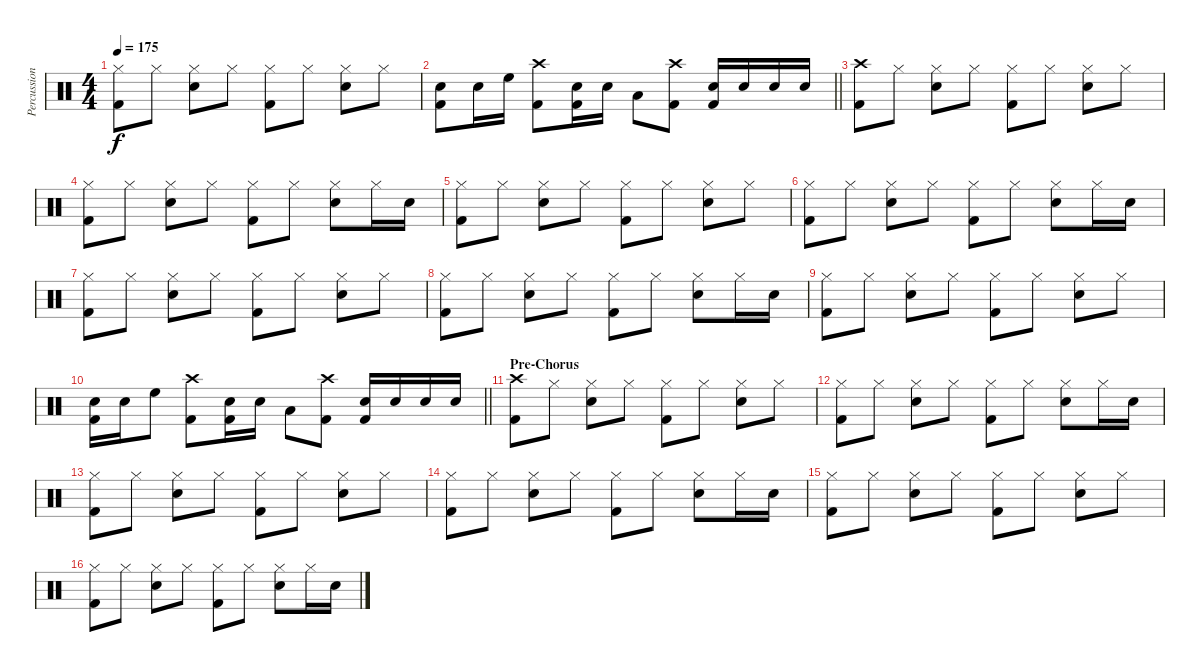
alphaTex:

\track ("Percussion" "Percussion") {instrument percussion}
\staff {score}
\articulation defaults
\ts (4 4)
\tempo 175
\clef neutral
\ks c
("Hi-Hat (closed)" "Kick (hit) 2").8{dy f} "Hi-Hat (closed)".8 ("Hi-Hat (closed)" "Snare (hit) 2").8 "Hi-Hat (closed)".8 ("Hi-Hat (closed)" "Kick (hit) 2").8 "Hi-Hat (closed)".8 ("Hi-Hat (closed)" "Snare (hit) 2").8 "Hi-Hat (closed)".8 |
\barLineRight lightlight
("Snare (hit) 2" "Kick (hit) 2").8 "Snare (hit) 2".16 "High Floor Tom (hit)".16 ("Crash high (hit)" "Kick (hit) 2").8 ("Snare (hit) 2" "Kick (hit) 2").16 "Snare (hit) 2".16 "Low Floor Tom (hit)".8 ("Crash high (hit)" "Kick (hit) 2").8 ("Snare (hit) 2" "Kick (hit) 2").16 "Snare (hit) 2".16 "Snare (hit) 2".16 "Snare (hit) 2".16 |
("Crash high (hit)" "Kick (hit) 2").8 "Hi-Hat (closed)".8 ("Hi-Hat (closed)" "Snare (hit) 2").8 "Hi-Hat (closed)".8 ("Hi-Hat (closed)" "Kick (hit) 2").8 "Hi-Hat (closed)".8 ("Hi-Hat (closed)" "Snare (hit) 2").8 "Hi-Hat (closed)".8 |
("Hi-Hat (closed)" "Kick (hit) 2").8 "Hi-Hat (closed)".8 ("Hi-Hat (closed)" "Snare (hit) 2").8 "Hi-Hat (closed)".8 ("Hi-Hat (closed)" "Kick (hit) 2").8 "Hi-Hat (closed)".8 ("Hi-Hat (closed)" "Snare (hit) 2").8 "Hi-Hat (closed)".16 "Snare (hit) 2".16 |
("Hi-Hat (closed)" "Kick (hit) 2").8 "Hi-Hat (closed)".8 ("Hi-Hat (closed)" "Snare (hit) 2").8 "Hi-Hat (closed)".8 ("Hi-Hat (closed)" "Kick (hit) 2").8 "Hi-Hat (closed)".8 ("Hi-Hat (closed)" "Snare (hit) 2").8 "Hi-Hat (closed)".8 |
("Hi-Hat (closed)" "Kick (hit) 2").8 "Hi-Hat (closed)".8 ("Hi-Hat (closed)" "Snare (hit) 2").8 "Hi-Hat (closed)".8 ("Hi-Hat (closed)" "Kick (hit) 2").8 "Hi-Hat (closed)".8 ("Hi-Hat (closed)" "Snare (hit) 2").8 "Hi-Hat (closed)".16 "Snare (hit) 2".16 |
("Hi-Hat (closed)" "Kick (hit) 2").8 "Hi-Hat (closed)".8 ("Hi-Hat (closed)" "Snare (hit) 2").8 "Hi-Hat (closed)".8 ("Hi-Hat (closed)" "Kick (hit) 2").8 "Hi-Hat (closed)".8 ("Hi-Hat (closed)" "Snare (hit) 2").8 "Hi-Hat (closed)".8 |
("Hi-Hat (closed)" "Kick (hit) 2").8 "Hi-Hat (closed)".8 ("Hi-Hat (closed)" "Snare (hit) 2").8 "Hi-Hat (closed)".8 ("Hi-Hat (closed)" "Kick (hit) 2").8 "Hi-Hat (closed)".8 ("Hi-Hat (closed)" "Snare (hit) 2").8 "Hi-Hat (closed)".16 "Snare (hit) 2".16 |
("Hi-Hat (closed)" "Kick (hit) 2").8 "Hi-Hat (closed)".8 ("Hi-Hat (closed)" "Snare (hit) 2").8 "Hi-Hat (closed)".8 ("Hi-Hat (closed)" "Kick (hit) 2").8 "Hi-Hat (closed)".8 ("Hi-Hat (closed)" "Snare (hit) 2").8 "Hi-Hat (closed)".8 |
\barLineRight lightlight
("Snare (hit) 2" "Kick (hit) 2").16 "Snare (hit) 2".16 "High Floor Tom (hit)".8 ("Crash high (hit)" "Kick (hit) 2").8 ("Snare (hit) 2" "Kick (hit) 2").16 "Snare (hit) 2".16 "Low Floor Tom (hit)".8 ("Crash high (hit)" "Kick (hit) 2").8 ("Snare (hit) 2" "Kick (hit) 2").16 "Snare (hit) 2".16 "Snare (hit) 2".16 "Snare (hit) 2".16 |
\section ("" "Pre-Chorus")
("Crash high (hit)" "Kick (hit) 2").8 "Hi-Hat (closed)".8 ("Hi-Hat (closed)" "Snare (hit) 2").8 "Hi-Hat (closed)".8 ("Hi-Hat (closed)" "Kick (hit) 2").8 "Hi-Hat (closed)".8 ("Hi-Hat (closed)" "Snare (hit) 2").8 "Hi-Hat (closed)".8 |
("Hi-Hat (closed)" "Kick (hit) 2").8 "Hi-Hat (closed)".8 ("Hi-Hat (closed)" "Snare (hit) 2").8 "Hi-Hat (closed)".8 ("Hi-Hat (closed)" "Kick (hit) 2").8 "Hi-Hat (closed)".8 ("Hi-Hat (closed)" "Snare (hit) 2").8 "Hi-Hat (closed)".16 "Snare (hit) 2".16 |
("Hi-Hat (closed)" "Kick (hit) 2").8 "Hi-Hat (closed)".8 ("Hi-Hat (closed)" "Snare (hit) 2").8 "Hi-Hat (closed)".8 ("Hi-Hat (closed)" "Kick (hit) 2").8 "Hi-Hat (closed)".8 ("Hi-Hat (closed)" "Snare (hit) 2").8 "Hi-Hat (closed)".8 |
("Hi-Hat (closed)" "Kick (hit) 2").8 "Hi-Hat (closed)".8 ("Hi-Hat (closed)" "Snare (hit) 2").8 "Hi-Hat (closed)".8 ("Hi-Hat (closed)" "Kick (hit) 2").8 "Hi-Hat (closed)".8 ("Hi-Hat (closed)" "Snare (hit) 2").8 "Hi-Hat (closed)".16 "Snare (hit) 2".16 |
("Hi-Hat (closed)" "Kick (hit) 2").8 "Hi-Hat (closed)".8 ("Hi-Hat (closed)" "Snare (hit) 2").8 "Hi-Hat (closed)".8 ("Hi-Hat (closed)" "Kick (hit) 2").8 "Hi-Hat (closed)".8 ("Hi-Hat (closed)" "Snare (hit) 2").8 "Hi-Hat (closed)".8 |
("Hi-Hat (closed)" "Kick (hit) 2").8 "Hi-Hat (closed)".8 ("Hi-Hat (closed)" "Snare (hit) 2").8 "Hi-Hat (closed)".8 ("Hi-Hat (closed)" "Kick (hit) 2").8 "Hi-Hat (closed)".8 ("Hi-Hat (closed)" "Snare (hit) 2").8 "Hi-Hat (closed)".16 "Snare (hit) 2".16
